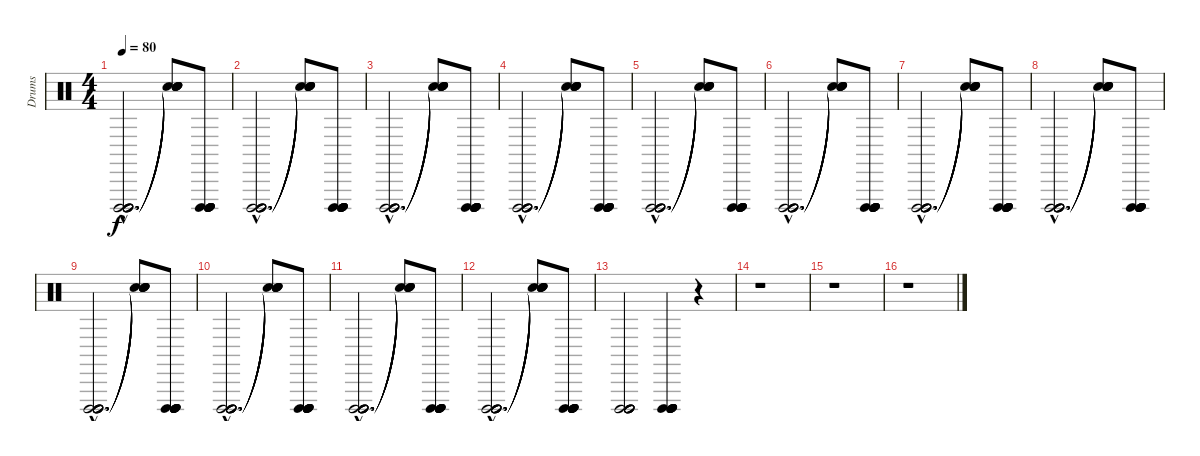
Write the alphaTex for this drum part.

\track ("Drums" "Drums") {instrument percussion}
\staff {score}
\articulation defaults
\ts (4 4)
\tempo 80
\clef neutral
\ks c
("Cuica (open)"{hac} "Cuica (open)"{hac} "Cuica (open)"{hac} "Cuica (open)"{hac} "Cuica (open)"{hac} "Cuica (open)"{hac}).2{d dy f} ("Snare (hit)"{t} "Snare (hit)"{t} "Snare (hit)"{t} "Snare (hit)"{t} "Snare (hit)"{t}).8 ("Cuica (open)" "Cuica (open)" "Cuica (open)" "Cuica (open)" "Cuica (open)" "Cuica (open)").8 |
("Cuica (open)"{hac} "Cuica (open)"{hac} "Cuica (open)"{hac} "Cuica (open)"{hac} "Cuica (open)"{hac} "Cuica (open)"{hac}).2{d} ("Snare (hit)"{t} "Snare (hit)"{t} "Snare (hit)"{t} "Snare (hit)"{t} "Snare (hit)"{t}).8 ("Cuica (open)" "Cuica (open)" "Cuica (open)" "Cuica (open)" "Cuica (open)" "Cuica (open)").8 |
("Cuica (open)"{hac} "Cuica (open)"{hac} "Cuica (open)"{hac} "Cuica (open)"{hac} "Cuica (open)"{hac} "Cuica (open)"{hac}).2{d} ("Snare (hit)"{t} "Snare (hit)"{t} "Snare (hit)"{t} "Snare (hit)"{t} "Snare (hit)"{t}).8 ("Cuica (open)" "Cuica (open)" "Cuica (open)" "Cuica (open)" "Cuica (open)" "Cuica (open)").8 |
("Cuica (open)"{hac} "Cuica (open)"{hac} "Cuica (open)"{hac} "Cuica (open)"{hac} "Cuica (open)"{hac} "Cuica (open)"{hac}).2{d} ("Snare (hit)"{t} "Snare (hit)"{t} "Snare (hit)"{t} "Snare (hit)"{t} "Snare (hit)"{t}).8 ("Cuica (open)" "Cuica (open)" "Cuica (open)" "Cuica (open)" "Cuica (open)" "Cuica (open)").8 |
("Cuica (open)"{hac} "Cuica (open)"{hac} "Cuica (open)"{hac} "Cuica (open)"{hac} "Cuica (open)"{hac} "Cuica (open)"{hac}).2{d} ("Snare (hit)"{t} "Snare (hit)"{t} "Snare (hit)"{t} "Snare (hit)"{t} "Snare (hit)"{t}).8 ("Cuica (open)" "Cuica (open)" "Cuica (open)" "Cuica (open)" "Cuica (open)" "Cuica (open)").8 |
("Cuica (open)"{hac} "Cuica (open)"{hac} "Cuica (open)"{hac} "Cuica (open)"{hac} "Cuica (open)"{hac} "Cuica (open)"{hac}).2{d} ("Snare (hit)"{t} "Snare (hit)"{t} "Snare (hit)"{t} "Snare (hit)"{t} "Snare (hit)"{t}).8 ("Cuica (open)" "Cuica (open)" "Cuica (open)" "Cuica (open)" "Cuica (open)" "Cuica (open)").8 |
("Cuica (open)"{hac} "Cuica (open)"{hac} "Cuica (open)"{hac} "Cuica (open)"{hac} "Cuica (open)"{hac} "Cuica (open)"{hac}).2{d} ("Snare (hit)"{t} "Snare (hit)"{t} "Snare (hit)"{t} "Snare (hit)"{t} "Snare (hit)"{t}).8 ("Cuica (open)" "Cuica (open)" "Cuica (open)" "Cuica (open)" "Cuica (open)" "Cuica (open)").8 |
("Cuica (open)"{hac} "Cuica (open)"{hac} "Cuica (open)"{hac} "Cuica (open)"{hac} "Cuica (open)"{hac} "Cuica (open)"{hac}).2{d} ("Snare (hit)"{t} "Snare (hit)"{t} "Snare (hit)"{t} "Snare (hit)"{t} "Snare (hit)"{t}).8 ("Cuica (open)" "Cuica (open)" "Cuica (open)" "Cuica (open)" "Cuica (open)" "Cuica (open)").8 |
("Cuica (open)"{hac} "Cuica (open)"{hac} "Cuica (open)"{hac} "Cuica (open)"{hac} "Cuica (open)"{hac} "Cuica (open)"{hac}).2{d} ("Snare (hit)"{t} "Snare (hit)"{t} "Snare (hit)"{t} "Snare (hit)"{t} "Snare (hit)"{t}).8 ("Cuica (open)" "Cuica (open)" "Cuica (open)" "Cuica (open)" "Cuica (open)" "Cuica (open)").8 |
("Cuica (open)"{hac} "Cuica (open)"{hac} "Cuica (open)"{hac} "Cuica (open)"{hac} "Cuica (open)"{hac} "Cuica (open)"{hac}).2{d} ("Snare (hit)"{t} "Snare (hit)"{t} "Snare (hit)"{t} "Snare (hit)"{t} "Snare (hit)"{t}).8 ("Cuica (open)" "Cuica (open)" "Cuica (open)" "Cuica (open)" "Cuica (open)" "Cuica (open)").8 |
("Cuica (open)"{hac} "Cuica (open)"{hac} "Cuica (open)"{hac} "Cuica (open)"{hac} "Cuica (open)"{hac} "Cuica (open)"{hac}).2{d} ("Snare (hit)"{t} "Snare (hit)"{t} "Snare (hit)"{t} "Snare (hit)"{t} "Snare (hit)"{t}).8 ("Cuica (open)" "Cuica (open)" "Cuica (open)" "Cuica (open)" "Cuica (open)" "Cuica (open)").8 |
("Cuica (open)"{hac} "Cuica (open)"{hac} "Cuica (open)"{hac} "Cuica (open)"{hac} "Cuica (open)"{hac} "Cuica (open)"{hac}).2{d} ("Snare (hit)"{t} "Snare (hit)"{t} "Snare (hit)"{t} "Snare (hit)"{t} "Snare (hit)"{t}).8 ("Cuica (open)" "Cuica (open)" "Cuica (open)" "Cuica (open)" "Cuica (open)" "Cuica (open)").8 |
("Cuica (open)" "Cuica (open)" "Cuica (open)" "Cuica (open)" "Cuica (open)" "Cuica (open)").2 ("Cuica (open)" "Cuica (open)" "Cuica (open)" "Cuica (open)" "Cuica (open)" "Cuica (open)").4 r.4 |
r.1 |
r.1 |
r.1
